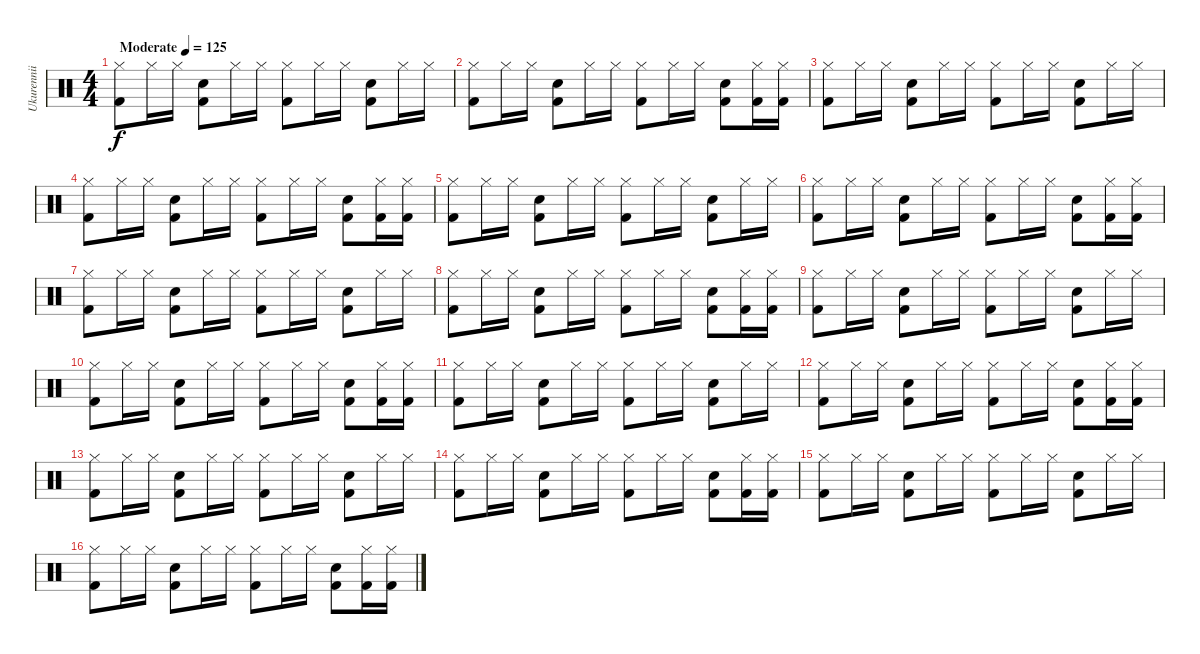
\track ("Ukurennii Drums" "Ukurennii ") {instrument percussion}
\staff {score}
\articulation defaults
\ts (4 4)
\tempo (125 "Moderate")
\clef neutral
\ks c
("Kick (hit) 2" "Hi-Hat (closed)").8{dy f} "Hi-Hat (closed)".16 "Hi-Hat (closed)".16 ("Kick (hit) 2" "Snare (hit) 2").8 "Hi-Hat (closed)".16 "Hi-Hat (closed)".16 ("Hi-Hat (closed)" "Kick (hit) 2").8 "Hi-Hat (closed)".16 "Hi-Hat (closed)".16 ("Snare (hit) 2" "Kick (hit) 2").8 "Hi-Hat (closed)".16 "Hi-Hat (closed)".16 |
("Hi-Hat (closed)" "Kick (hit) 2").8 "Hi-Hat (closed)".16 "Hi-Hat (closed)".16 ("Snare (hit) 2" "Kick (hit) 2").8 "Hi-Hat (closed)".16 "Hi-Hat (closed)".16 ("Kick (hit) 2" "Hi-Hat (closed)").8 "Hi-Hat (closed)".16 "Hi-Hat (closed)".16 ("Snare (hit) 2" "Kick (hit) 2").8 ("Kick (hit) 2" "Hi-Hat (closed)").16 ("Hi-Hat (closed)" "Kick (hit) 2").16 |
("Kick (hit) 2" "Hi-Hat (closed)").8 "Hi-Hat (closed)".16 "Hi-Hat (closed)".16 ("Snare (hit) 2" "Kick (hit) 2").8 "Hi-Hat (closed)".16 "Hi-Hat (closed)".16 ("Kick (hit) 2" "Hi-Hat (closed)").8 "Hi-Hat (closed)".16 "Hi-Hat (closed)".16 ("Kick (hit) 2" "Snare (hit) 2").8 "Hi-Hat (closed)".16 "Hi-Hat (closed)".16 |
("Hi-Hat (closed)" "Kick (hit) 2").8 "Hi-Hat (closed)".16 "Hi-Hat (closed)".16 ("Snare (hit) 2" "Kick (hit) 2").8 "Hi-Hat (closed)".16 "Hi-Hat (closed)".16 ("Kick (hit) 2" "Hi-Hat (closed)").8 "Hi-Hat (closed)".16 "Hi-Hat (closed)".16 ("Kick (hit) 2" "Snare (hit) 2").8 ("Kick (hit) 2" "Hi-Hat (closed)").16 ("Hi-Hat (closed)" "Kick (hit) 2").16 |
("Kick (hit) 2" "Hi-Hat (closed)").8 "Hi-Hat (closed)".16 "Hi-Hat (closed)".16 ("Kick (hit) 2" "Snare (hit) 2").8 "Hi-Hat (closed)".16 "Hi-Hat (closed)".16 ("Hi-Hat (closed)" "Kick (hit) 2").8 "Hi-Hat (closed)".16 "Hi-Hat (closed)".16 ("Snare (hit) 2" "Kick (hit) 2").8 "Hi-Hat (closed)".16 "Hi-Hat (closed)".16 |
("Hi-Hat (closed)" "Kick (hit) 2").8 "Hi-Hat (closed)".16 "Hi-Hat (closed)".16 ("Snare (hit) 2" "Kick (hit) 2").8 "Hi-Hat (closed)".16 "Hi-Hat (closed)".16 ("Kick (hit) 2" "Hi-Hat (closed)").8 "Hi-Hat (closed)".16 "Hi-Hat (closed)".16 ("Snare (hit) 2" "Kick (hit) 2").8 ("Kick (hit) 2" "Hi-Hat (closed)").16 ("Hi-Hat (closed)" "Kick (hit) 2").16 |
("Kick (hit) 2" "Hi-Hat (closed)").8 "Hi-Hat (closed)".16 "Hi-Hat (closed)".16 ("Snare (hit) 2" "Kick (hit) 2").8 "Hi-Hat (closed)".16 "Hi-Hat (closed)".16 ("Kick (hit) 2" "Hi-Hat (closed)").8 "Hi-Hat (closed)".16 "Hi-Hat (closed)".16 ("Kick (hit) 2" "Snare (hit) 2").8 "Hi-Hat (closed)".16 "Hi-Hat (closed)".16 |
("Hi-Hat (closed)" "Kick (hit) 2").8 "Hi-Hat (closed)".16 "Hi-Hat (closed)".16 ("Snare (hit) 2" "Kick (hit) 2").8 "Hi-Hat (closed)".16 "Hi-Hat (closed)".16 ("Kick (hit) 2" "Hi-Hat (closed)").8 "Hi-Hat (closed)".16 "Hi-Hat (closed)".16 ("Kick (hit) 2" "Snare (hit) 2").8 ("Kick (hit) 2" "Hi-Hat (closed)").16 ("Hi-Hat (closed)" "Kick (hit) 2").16 |
("Kick (hit) 2" "Hi-Hat (closed)").8 "Hi-Hat (closed)".16 "Hi-Hat (closed)".16 ("Kick (hit) 2" "Snare (hit) 2").8 "Hi-Hat (closed)".16 "Hi-Hat (closed)".16 ("Hi-Hat (closed)" "Kick (hit) 2").8 "Hi-Hat (closed)".16 "Hi-Hat (closed)".16 ("Kick (hit) 2" "Snare (hit) 2").8 "Hi-Hat (closed)".16 "Hi-Hat (closed)".16 |
("Hi-Hat (closed)" "Kick (hit) 2").8 "Hi-Hat (closed)".16 "Hi-Hat (closed)".16 ("Snare (hit) 2" "Kick (hit) 2").8 "Hi-Hat (closed)".16 "Hi-Hat (closed)".16 ("Kick (hit) 2" "Hi-Hat (closed)").8 "Hi-Hat (closed)".16 "Hi-Hat (closed)".16 ("Snare (hit) 2" "Kick (hit) 2").8 ("Hi-Hat (closed)" "Kick (hit) 2").16 ("Kick (hit) 2" "Hi-Hat (closed)").16 |
("Hi-Hat (closed)" "Kick (hit) 2").8 "Hi-Hat (closed)".16 "Hi-Hat (closed)".16 ("Kick (hit) 2" "Snare (hit) 2").8 "Hi-Hat (closed)".16 "Hi-Hat (closed)".16 ("Hi-Hat (closed)" "Kick (hit) 2").8 "Hi-Hat (closed)".16 "Hi-Hat (closed)".16 ("Kick (hit) 2" "Snare (hit) 2").8 "Hi-Hat (closed)".16 "Hi-Hat (closed)".16 |
("Kick (hit) 2" "Hi-Hat (closed)").8 "Hi-Hat (closed)".16 "Hi-Hat (closed)".16 ("Kick (hit) 2" "Snare (hit) 2").8 "Hi-Hat (closed)".16 "Hi-Hat (closed)".16 ("Kick (hit) 2" "Hi-Hat (closed)").8 "Hi-Hat (closed)".16 "Hi-Hat (closed)".16 ("Kick (hit) 2" "Snare (hit) 2").8 ("Hi-Hat (closed)" "Kick (hit) 2").16 ("Hi-Hat (closed)" "Kick (hit) 2").16 |
("Kick (hit) 2" "Hi-Hat (closed)").8 "Hi-Hat (closed)".16 "Hi-Hat (closed)".16 ("Kick (hit) 2" "Snare (hit) 2").8 "Hi-Hat (closed)".16 "Hi-Hat (closed)".16 ("Hi-Hat (closed)" "Kick (hit) 2").8 "Hi-Hat (closed)".16 "Hi-Hat (closed)".16 ("Kick (hit) 2" "Snare (hit) 2").8 "Hi-Hat (closed)".16 "Hi-Hat (closed)".16 |
("Hi-Hat (closed)" "Kick (hit) 2").8 "Hi-Hat (closed)".16 "Hi-Hat (closed)".16 ("Snare (hit) 2" "Kick (hit) 2").8 "Hi-Hat (closed)".16 "Hi-Hat (closed)".16 ("Kick (hit) 2" "Hi-Hat (closed)").8 "Hi-Hat (closed)".16 "Hi-Hat (closed)".16 ("Snare (hit) 2" "Kick (hit) 2").8 ("Hi-Hat (closed)" "Kick (hit) 2").16 ("Kick (hit) 2" "Hi-Hat (closed)").16 |
("Hi-Hat (closed)" "Kick (hit) 2").8 "Hi-Hat (closed)".16 "Hi-Hat (closed)".16 ("Kick (hit) 2" "Snare (hit) 2").8 "Hi-Hat (closed)".16 "Hi-Hat (closed)".16 ("Hi-Hat (closed)" "Kick (hit) 2").8 "Hi-Hat (closed)".16 "Hi-Hat (closed)".16 ("Kick (hit) 2" "Snare (hit) 2").8 "Hi-Hat (closed)".16 "Hi-Hat (closed)".16 |
("Kick (hit) 2" "Hi-Hat (closed)").8 "Hi-Hat (closed)".16 "Hi-Hat (closed)".16 ("Kick (hit) 2" "Snare (hit) 2").8 "Hi-Hat (closed)".16 "Hi-Hat (closed)".16 ("Kick (hit) 2" "Hi-Hat (closed)").8 "Hi-Hat (closed)".16 "Hi-Hat (closed)".16 ("Kick (hit) 2" "Snare (hit) 2").8 ("Hi-Hat (closed)" "Kick (hit) 2").16 ("Hi-Hat (closed)" "Kick (hit) 2").16
